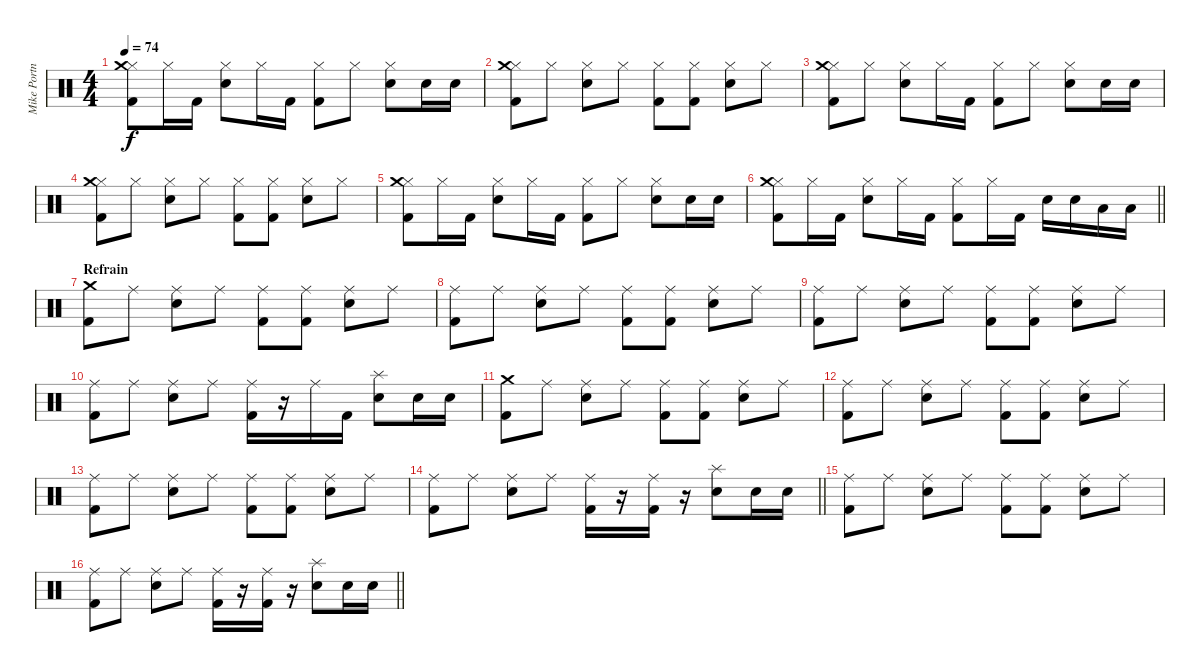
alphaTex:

\track ("Mike Portnoy" "Mike Portn") {instrument percussion}
\staff {score}
\articulation defaults
\ts (4 4)
\tempo 74
\clef neutral
\ks c
("Hi-Hat (closed)" "Crash medium (hit)" "Kick (hit) 2").8{dy f} "Hi-Hat (closed)".16 "Kick (hit) 2".16 ("Hi-Hat (closed)" "Electric Snare (hit)").8 "Hi-Hat (closed)".16 "Kick (hit) 2".16 ("Hi-Hat (closed)" "Kick (hit) 2").8 "Hi-Hat (closed)".8 ("Hi-Hat (closed)" "Electric Snare (hit)").8 "Electric Snare (hit)".16 "Electric Snare (hit)".16 |
("Hi-Hat (closed)" "Crash medium (hit)" "Kick (hit) 2").8 "Hi-Hat (closed)".8 ("Hi-Hat (closed)" "Electric Snare (hit)").8 "Hi-Hat (closed)".8 ("Hi-Hat (closed)" "Kick (hit) 2").8 ("Hi-Hat (closed)" "Kick (hit) 2").8 ("Hi-Hat (closed)" "Electric Snare (hit)").8 "Hi-Hat (closed)".8 |
("Hi-Hat (closed)" "Crash medium (hit)" "Kick (hit) 2").8 "Hi-Hat (closed)".8 ("Hi-Hat (closed)" "Electric Snare (hit)").8 "Hi-Hat (closed)".16 "Kick (hit) 2".16 ("Hi-Hat (closed)" "Kick (hit) 2").8 "Hi-Hat (closed)".8 ("Hi-Hat (closed)" "Electric Snare (hit)").8 "Electric Snare (hit)".16 "Electric Snare (hit)".16 |
("Hi-Hat (closed)" "Crash medium (hit)" "Kick (hit) 2").8 "Hi-Hat (closed)".8 ("Hi-Hat (closed)" "Electric Snare (hit)").8 "Hi-Hat (closed)".8 ("Hi-Hat (closed)" "Kick (hit) 2").8 ("Hi-Hat (closed)" "Kick (hit) 2").8 ("Hi-Hat (closed)" "Electric Snare (hit)").8 "Hi-Hat (closed)".8 |
("Hi-Hat (closed)" "Crash medium (hit)" "Kick (hit) 2").8 "Hi-Hat (closed)".16 "Kick (hit) 2".16 ("Hi-Hat (closed)" "Electric Snare (hit)").8 "Hi-Hat (closed)".16 "Kick (hit) 2".16 ("Hi-Hat (closed)" "Kick (hit) 2").8 "Hi-Hat (closed)".8 ("Hi-Hat (closed)" "Electric Snare (hit)").8 "Electric Snare (hit)".16 "Electric Snare (hit)".16 |
\barLineRight lightlight
("Hi-Hat (closed)" "Crash medium (hit)" "Kick (hit) 2").8 "Hi-Hat (closed)".16 "Kick (hit) 2".16 ("Hi-Hat (closed)" "Electric Snare (hit)").8 "Hi-Hat (closed)".16 "Kick (hit) 2".16 ("Hi-Hat (closed)" "Kick (hit) 2").8 "Hi-Hat (closed)".16 "Kick (hit) 2".16 "Electric Snare (hit)".16 "Electric Snare (hit)".16 "Low Tom (hit)".16 "Low Tom (hit)".16 |
\section ("" "Refrain")
("Crash medium (hit)" "Kick (hit) 2").8 "Ride (middle)".8 ("Ride (middle)" "Electric Snare (hit)").8 "Ride (middle)".8 ("Ride (middle)" "Kick (hit) 2").8 ("Ride (middle)" "Kick (hit) 2").8 ("Ride (middle)" "Electric Snare (hit)").8 "Ride (middle)".8 |
("Ride (middle)" "Kick (hit) 2").8 "Ride (middle)".8 ("Ride (middle)" "Electric Snare (hit)").8 "Ride (middle)".8 ("Ride (middle)" "Kick (hit) 2").8 ("Ride (middle)" "Kick (hit) 2").8 ("Ride (middle)" "Electric Snare (hit)").8 "Ride (middle)".8 |
("Ride (middle)" "Kick (hit) 2").8 "Ride (middle)".8 ("Ride (middle)" "Electric Snare (hit)").8 "Ride (middle)".8 ("Ride (middle)" "Kick (hit) 2").8 ("Ride (middle)" "Kick (hit) 2").8 ("Ride (middle)" "Electric Snare (hit)").8 "Ride (middle)".8 |
("Ride (middle)" "Kick (hit) 2").8 "Ride (middle)".8 ("Ride (middle)" "Electric Snare (hit)").8 "Ride (middle)".8 ("Ride (middle)" "Kick (hit) 2").16 r.16 "Ride (middle)".16 "Kick (hit) 2".16 ("Splash (hit)" "Electric Snare (hit)").8 "Electric Snare (hit)".16 "Electric Snare (hit)".16 |
("Crash medium (hit)" "Kick (hit) 2").8 "Ride (middle)".8 ("Ride (middle)" "Electric Snare (hit)").8 "Ride (middle)".8 ("Ride (middle)" "Kick (hit) 2").8 ("Ride (middle)" "Kick (hit) 2").8 ("Ride (middle)" "Electric Snare (hit)").8 "Ride (middle)".8 |
("Ride (middle)" "Kick (hit) 2").8 "Ride (middle)".8 ("Ride (middle)" "Electric Snare (hit)").8 "Ride (middle)".8 ("Ride (middle)" "Kick (hit) 2").8 ("Ride (middle)" "Kick (hit) 2").8 ("Ride (middle)" "Electric Snare (hit)").8 "Ride (middle)".8 |
("Ride (middle)" "Kick (hit) 2").8 "Ride (middle)".8 ("Ride (middle)" "Electric Snare (hit)").8 "Ride (middle)".8 ("Ride (middle)" "Kick (hit) 2").8 ("Ride (middle)" "Kick (hit) 2").8 ("Ride (middle)" "Electric Snare (hit)").8 "Ride (middle)".8 |
\barLineRight lightlight
("Ride (middle)" "Kick (hit) 2").8 "Ride (middle)".8 ("Ride (middle)" "Electric Snare (hit)").8 "Ride (middle)".8 ("Ride (middle)" "Kick (hit) 2").16 r.16 ("Ride (middle)" "Kick (hit) 2").16 r.16 ("Splash (hit)" "Electric Snare (hit)").8 "Electric Snare (hit)".16 "Electric Snare (hit)".16 |
("Ride (middle)" "Kick (hit) 2").8 "Ride (middle)".8 ("Ride (middle)" "Electric Snare (hit)").8 "Ride (middle)".8 ("Ride (middle)" "Kick (hit) 2").8 ("Ride (middle)" "Kick (hit) 2").8 ("Ride (middle)" "Electric Snare (hit)").8 "Ride (middle)".8 |
\barLineRight lightlight
("Ride (middle)" "Kick (hit) 2").8 "Ride (middle)".8 ("Ride (middle)" "Electric Snare (hit)").8 "Ride (middle)".8 ("Ride (middle)" "Kick (hit) 2").16 r.16 ("Ride (middle)" "Kick (hit) 2").16 r.16 ("Splash (hit)" "Electric Snare (hit)").8 "Electric Snare (hit)".16 "Electric Snare (hit)".16
